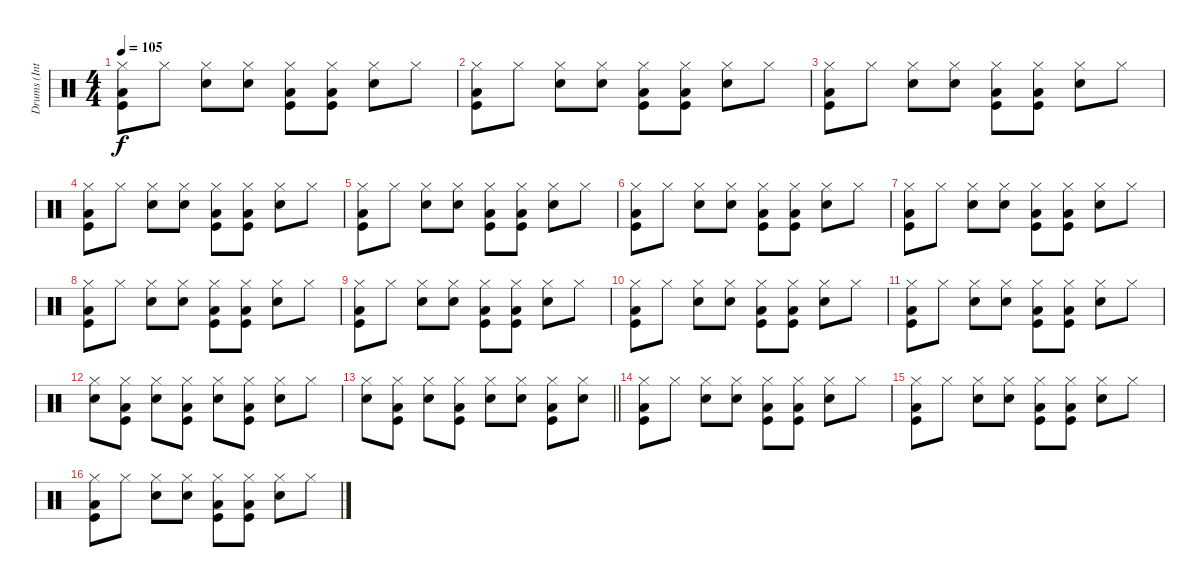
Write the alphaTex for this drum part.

\track ("Drums (Intro)" "Drums (Int") {instrument percussion}
\staff {score}
\articulation defaults
\ts (4 4)
\tempo 105
\clef neutral
\ks c
("Hi-Hat (closed)" "Low Floor Tom (hit)" "Kick (hit)").8{dy f} "Hi-Hat (closed)".8 ("Hi-Hat (closed)" "Snare (hit) 2").8 ("Hi-Hat (closed)" "Snare (hit) 2").8 ("Hi-Hat (closed)" "Low Floor Tom (hit)" "Kick (hit)").8 ("Hi-Hat (closed)" "Low Floor Tom (hit)" "Kick (hit)").8 ("Hi-Hat (closed)" "Snare (hit) 2").8 "Hi-Hat (closed)".8 |
("Hi-Hat (closed)" "Low Floor Tom (hit)" "Kick (hit)").8 "Hi-Hat (closed)".8 ("Hi-Hat (closed)" "Snare (hit) 2").8 ("Hi-Hat (closed)" "Snare (hit) 2").8 ("Hi-Hat (closed)" "Low Floor Tom (hit)" "Kick (hit)").8 ("Hi-Hat (closed)" "Low Floor Tom (hit)" "Kick (hit)").8 ("Hi-Hat (closed)" "Snare (hit) 2").8 "Hi-Hat (closed)".8 |
("Hi-Hat (closed)" "Low Floor Tom (hit)" "Kick (hit)").8 "Hi-Hat (closed)".8 ("Hi-Hat (closed)" "Snare (hit) 2").8 ("Hi-Hat (closed)" "Snare (hit) 2").8 ("Hi-Hat (closed)" "Low Floor Tom (hit)" "Kick (hit)").8 ("Hi-Hat (closed)" "Low Floor Tom (hit)" "Kick (hit)").8 ("Hi-Hat (closed)" "Snare (hit) 2").8 "Hi-Hat (closed)".8 |
("Hi-Hat (closed)" "Low Floor Tom (hit)" "Kick (hit)").8 "Hi-Hat (closed)".8 ("Hi-Hat (closed)" "Snare (hit) 2").8 ("Hi-Hat (closed)" "Snare (hit) 2").8 ("Hi-Hat (closed)" "Low Floor Tom (hit)" "Kick (hit)").8 ("Hi-Hat (closed)" "Low Floor Tom (hit)" "Kick (hit)").8 ("Hi-Hat (closed)" "Snare (hit) 2").8 "Hi-Hat (closed)".8 |
("Hi-Hat (closed)" "Low Floor Tom (hit)" "Kick (hit)").8 "Hi-Hat (closed)".8 ("Hi-Hat (closed)" "Snare (hit) 2").8 ("Hi-Hat (closed)" "Snare (hit) 2").8 ("Hi-Hat (closed)" "Low Floor Tom (hit)" "Kick (hit)").8 ("Hi-Hat (closed)" "Low Floor Tom (hit)" "Kick (hit)").8 ("Hi-Hat (closed)" "Snare (hit) 2").8 "Hi-Hat (closed)".8 |
("Hi-Hat (closed)" "Low Floor Tom (hit)" "Kick (hit)").8 "Hi-Hat (closed)".8 ("Hi-Hat (closed)" "Snare (hit) 2").8 ("Hi-Hat (closed)" "Snare (hit) 2").8 ("Hi-Hat (closed)" "Low Floor Tom (hit)" "Kick (hit)").8 ("Hi-Hat (closed)" "Low Floor Tom (hit)" "Kick (hit)").8 ("Hi-Hat (closed)" "Snare (hit) 2").8 "Hi-Hat (closed)".8 |
("Hi-Hat (closed)" "Low Floor Tom (hit)" "Kick (hit)").8 "Hi-Hat (closed)".8 ("Hi-Hat (closed)" "Snare (hit) 2").8 ("Hi-Hat (closed)" "Snare (hit) 2").8 ("Hi-Hat (closed)" "Low Floor Tom (hit)" "Kick (hit)").8 ("Hi-Hat (closed)" "Low Floor Tom (hit)" "Kick (hit)").8 ("Hi-Hat (closed)" "Snare (hit) 2").8 "Hi-Hat (closed)".8 |
("Hi-Hat (closed)" "Low Floor Tom (hit)" "Kick (hit)").8 "Hi-Hat (closed)".8 ("Hi-Hat (closed)" "Snare (hit) 2").8 ("Hi-Hat (closed)" "Snare (hit) 2").8 ("Hi-Hat (closed)" "Low Floor Tom (hit)" "Kick (hit)").8 ("Hi-Hat (closed)" "Low Floor Tom (hit)" "Kick (hit)").8 ("Hi-Hat (closed)" "Snare (hit) 2").8 "Hi-Hat (closed)".8 |
("Hi-Hat (closed)" "Low Floor Tom (hit)" "Kick (hit)").8 "Hi-Hat (closed)".8 ("Hi-Hat (closed)" "Snare (hit) 2").8 ("Hi-Hat (closed)" "Snare (hit) 2").8 ("Hi-Hat (closed)" "Low Floor Tom (hit)" "Kick (hit)").8 ("Hi-Hat (closed)" "Low Floor Tom (hit)" "Kick (hit)").8 ("Hi-Hat (closed)" "Snare (hit) 2").8 "Hi-Hat (closed)".8 |
("Hi-Hat (closed)" "Low Floor Tom (hit)" "Kick (hit)").8 "Hi-Hat (closed)".8 ("Hi-Hat (closed)" "Snare (hit) 2").8 ("Hi-Hat (closed)" "Snare (hit) 2").8 ("Hi-Hat (closed)" "Low Floor Tom (hit)" "Kick (hit)").8 ("Hi-Hat (closed)" "Low Floor Tom (hit)" "Kick (hit)").8 ("Hi-Hat (closed)" "Snare (hit) 2").8 "Hi-Hat (closed)".8 |
("Hi-Hat (closed)" "Low Floor Tom (hit)" "Kick (hit)").8 "Hi-Hat (closed)".8 ("Hi-Hat (closed)" "Snare (hit) 2").8 ("Hi-Hat (closed)" "Snare (hit) 2").8 ("Hi-Hat (closed)" "Low Floor Tom (hit)" "Kick (hit)").8 ("Hi-Hat (closed)" "Low Floor Tom (hit)" "Kick (hit)").8 ("Hi-Hat (closed)" "Snare (hit) 2").8 "Hi-Hat (closed)".8 |
("Hi-Hat (closed)" "Snare (hit) 2").8 ("Hi-Hat (closed)" "Low Floor Tom (hit)" "Kick (hit)").8 ("Hi-Hat (closed)" "Snare (hit) 2").8 ("Hi-Hat (closed)" "Low Floor Tom (hit)" "Kick (hit)").8 ("Hi-Hat (closed)" "Snare (hit) 2").8 ("Hi-Hat (closed)" "Low Floor Tom (hit)" "Kick (hit)").8 ("Hi-Hat (closed)" "Snare (hit) 2").8 "Hi-Hat (closed)".8 |
\barLineRight lightlight
("Hi-Hat (closed)" "Snare (hit) 2").8 ("Hi-Hat (closed)" "Low Floor Tom (hit)" "Kick (hit)").8 ("Hi-Hat (closed)" "Snare (hit) 2").8 ("Hi-Hat (closed)" "Low Floor Tom (hit)" "Kick (hit)").8 ("Hi-Hat (closed)" "Snare (hit) 2").8 ("Hi-Hat (closed)" "Snare (hit) 2").8 ("Hi-Hat (closed)" "Low Floor Tom (hit)" "Kick (hit)").8 ("Hi-Hat (closed)" "Snare (hit) 2").8 |
("Hi-Hat (closed)" "Low Floor Tom (hit)" "Kick (hit)").8 "Hi-Hat (closed)".8 ("Hi-Hat (closed)" "Snare (hit) 2").8 ("Hi-Hat (closed)" "Snare (hit) 2").8 ("Hi-Hat (closed)" "Low Floor Tom (hit)" "Kick (hit)").8 ("Hi-Hat (closed)" "Low Floor Tom (hit)" "Kick (hit)").8 ("Hi-Hat (closed)" "Snare (hit) 2").8 "Hi-Hat (closed)".8 |
("Hi-Hat (closed)" "Low Floor Tom (hit)" "Kick (hit)").8 "Hi-Hat (closed)".8 ("Hi-Hat (closed)" "Snare (hit) 2").8 ("Hi-Hat (closed)" "Snare (hit) 2").8 ("Hi-Hat (closed)" "Low Floor Tom (hit)" "Kick (hit)").8 ("Hi-Hat (closed)" "Low Floor Tom (hit)" "Kick (hit)").8 ("Hi-Hat (closed)" "Snare (hit) 2").8 "Hi-Hat (closed)".8 |
("Hi-Hat (closed)" "Low Floor Tom (hit)" "Kick (hit)").8 "Hi-Hat (closed)".8 ("Hi-Hat (closed)" "Snare (hit) 2").8 ("Hi-Hat (closed)" "Snare (hit) 2").8 ("Hi-Hat (closed)" "Low Floor Tom (hit)" "Kick (hit)").8 ("Hi-Hat (closed)" "Low Floor Tom (hit)" "Kick (hit)").8 ("Hi-Hat (closed)" "Snare (hit) 2").8 "Hi-Hat (closed)".8
